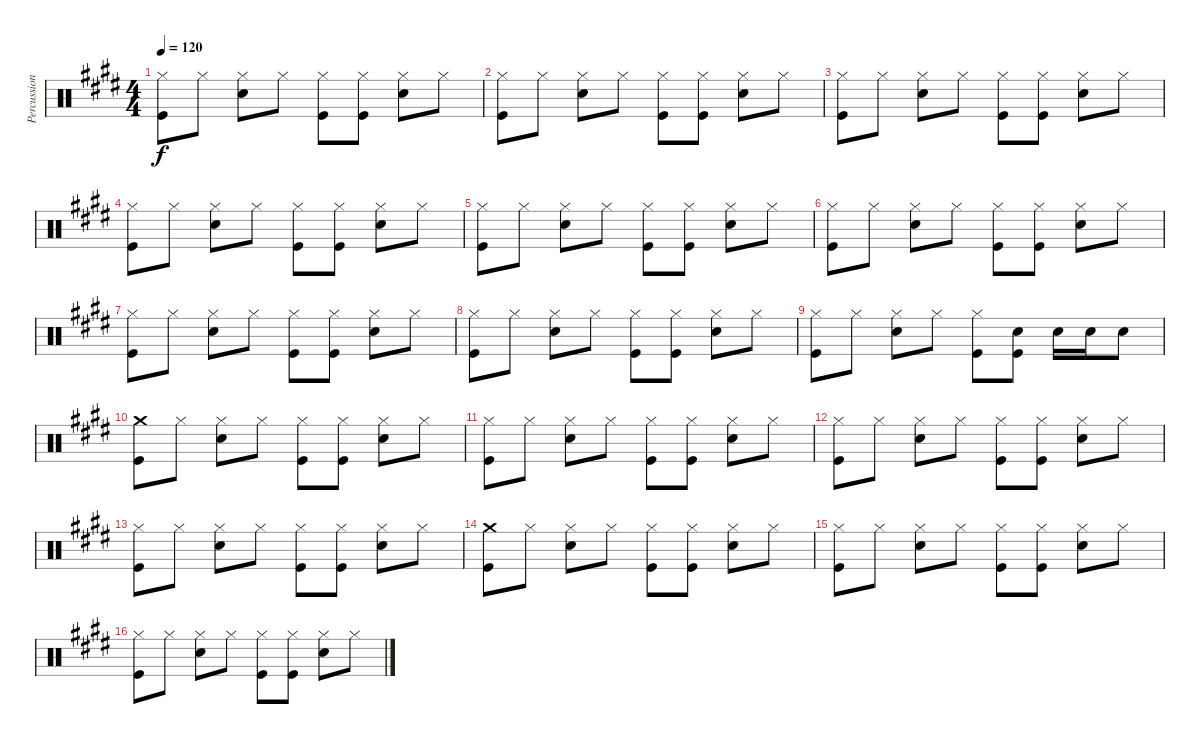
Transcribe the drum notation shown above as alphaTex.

\track ("Percussion" "Percussion") {instrument percussion}
\staff {score}
\articulation defaults
\ts (4 4)
\tempo 120
\clef neutral
\ks e
("Hi-Hat (closed)" "Kick (hit)").8{dy f} "Hi-Hat (closed)".8 ("Hi-Hat (closed)" "Snare (hit) 2").8 "Hi-Hat (closed)".8 ("Hi-Hat (closed)" "Kick (hit)").8 ("Hi-Hat (closed)" "Kick (hit)").8 ("Hi-Hat (closed)" "Snare (hit) 2").8 "Hi-Hat (closed)".8 |
("Hi-Hat (closed)" "Kick (hit)").8 "Hi-Hat (closed)".8 ("Hi-Hat (closed)" "Snare (hit) 2").8 "Hi-Hat (closed)".8 ("Hi-Hat (closed)" "Kick (hit)").8 ("Hi-Hat (closed)" "Kick (hit)").8 ("Hi-Hat (closed)" "Snare (hit) 2").8 "Hi-Hat (closed)".8 |
("Hi-Hat (closed)" "Kick (hit)").8 "Hi-Hat (closed)".8 ("Hi-Hat (closed)" "Snare (hit) 2").8 "Hi-Hat (closed)".8 ("Hi-Hat (closed)" "Kick (hit)").8 ("Hi-Hat (closed)" "Kick (hit)").8 ("Hi-Hat (closed)" "Snare (hit) 2").8 "Hi-Hat (closed)".8 |
("Hi-Hat (closed)" "Kick (hit)").8 "Hi-Hat (closed)".8 ("Hi-Hat (closed)" "Snare (hit) 2").8 "Hi-Hat (closed)".8 ("Hi-Hat (closed)" "Kick (hit)").8 ("Hi-Hat (closed)" "Kick (hit)").8 ("Hi-Hat (closed)" "Snare (hit) 2").8 "Hi-Hat (closed)".8 |
("Hi-Hat (closed)" "Kick (hit)").8 "Hi-Hat (closed)".8 ("Hi-Hat (closed)" "Snare (hit) 2").8 "Hi-Hat (closed)".8 ("Hi-Hat (closed)" "Kick (hit)").8 ("Hi-Hat (closed)" "Kick (hit)").8 ("Hi-Hat (closed)" "Snare (hit) 2").8 "Hi-Hat (closed)".8 |
("Hi-Hat (closed)" "Kick (hit)").8 "Hi-Hat (closed)".8 ("Hi-Hat (closed)" "Snare (hit) 2").8 "Hi-Hat (closed)".8 ("Hi-Hat (closed)" "Kick (hit)").8 ("Hi-Hat (closed)" "Kick (hit)").8 ("Hi-Hat (closed)" "Snare (hit) 2").8 "Hi-Hat (closed)".8 |
("Hi-Hat (closed)" "Kick (hit)").8 "Hi-Hat (closed)".8 ("Hi-Hat (closed)" "Snare (hit) 2").8 "Hi-Hat (closed)".8 ("Hi-Hat (closed)" "Kick (hit)").8 ("Hi-Hat (closed)" "Kick (hit)").8 ("Hi-Hat (closed)" "Snare (hit) 2").8 "Hi-Hat (closed)".8 |
("Hi-Hat (closed)" "Kick (hit)").8 "Hi-Hat (closed)".8 ("Hi-Hat (closed)" "Snare (hit) 2").8 "Hi-Hat (closed)".8 ("Hi-Hat (closed)" "Kick (hit)").8 ("Hi-Hat (closed)" "Kick (hit)").8 ("Hi-Hat (closed)" "Snare (hit) 2").8 "Hi-Hat (closed)".8 |
("Hi-Hat (closed)" "Kick (hit)").8 "Hi-Hat (closed)".8 ("Hi-Hat (closed)" "Snare (hit) 2").8 "Hi-Hat (closed)".8 ("Hi-Hat (closed)" "Kick (hit)").8 ("Snare (hit) 2" "Kick (hit)").8 "Snare (hit) 2".16 "Snare (hit) 2".16 "Snare (hit) 2".8 |
("Crash medium (hit)" "Kick (hit)").8 "Hi-Hat (closed)".8 ("Hi-Hat (closed)" "Snare (hit) 2").8 "Hi-Hat (closed)".8 ("Hi-Hat (closed)" "Kick (hit)").8 ("Hi-Hat (closed)" "Kick (hit)").8 ("Hi-Hat (closed)" "Snare (hit) 2").8 "Hi-Hat (closed)".8 |
("Hi-Hat (closed)" "Kick (hit)").8 "Hi-Hat (closed)".8 ("Hi-Hat (closed)" "Snare (hit) 2").8 "Hi-Hat (closed)".8 ("Hi-Hat (closed)" "Kick (hit)").8 ("Hi-Hat (closed)" "Kick (hit)").8 ("Hi-Hat (closed)" "Snare (hit) 2").8 "Hi-Hat (closed)".8 |
("Hi-Hat (closed)" "Kick (hit)").8 "Hi-Hat (closed)".8 ("Hi-Hat (closed)" "Snare (hit) 2").8 "Hi-Hat (closed)".8 ("Hi-Hat (closed)" "Kick (hit)").8 ("Hi-Hat (closed)" "Kick (hit)").8 ("Hi-Hat (closed)" "Snare (hit) 2").8 "Hi-Hat (closed)".8 |
("Hi-Hat (closed)" "Kick (hit)").8 "Hi-Hat (closed)".8 ("Hi-Hat (closed)" "Snare (hit) 2").8 "Hi-Hat (closed)".8 ("Hi-Hat (closed)" "Kick (hit)").8 ("Hi-Hat (closed)" "Kick (hit)").8 ("Hi-Hat (closed)" "Snare (hit) 2").8 "Hi-Hat (closed)".8 |
("Crash medium (hit)" "Kick (hit)").8 "Hi-Hat (closed)".8 ("Hi-Hat (closed)" "Snare (hit) 2").8 "Hi-Hat (closed)".8 ("Hi-Hat (closed)" "Kick (hit)").8 ("Hi-Hat (closed)" "Kick (hit)").8 ("Hi-Hat (closed)" "Snare (hit) 2").8 "Hi-Hat (closed)".8 |
("Hi-Hat (closed)" "Kick (hit)").8 "Hi-Hat (closed)".8 ("Hi-Hat (closed)" "Snare (hit) 2").8 "Hi-Hat (closed)".8 ("Hi-Hat (closed)" "Kick (hit)").8 ("Hi-Hat (closed)" "Kick (hit)").8 ("Hi-Hat (closed)" "Snare (hit) 2").8 "Hi-Hat (closed)".8 |
("Hi-Hat (closed)" "Kick (hit)").8 "Hi-Hat (closed)".8 ("Hi-Hat (closed)" "Snare (hit) 2").8 "Hi-Hat (closed)".8 ("Hi-Hat (closed)" "Kick (hit)").8 ("Hi-Hat (closed)" "Kick (hit)").8 ("Hi-Hat (closed)" "Snare (hit) 2").8 "Hi-Hat (closed)".8
